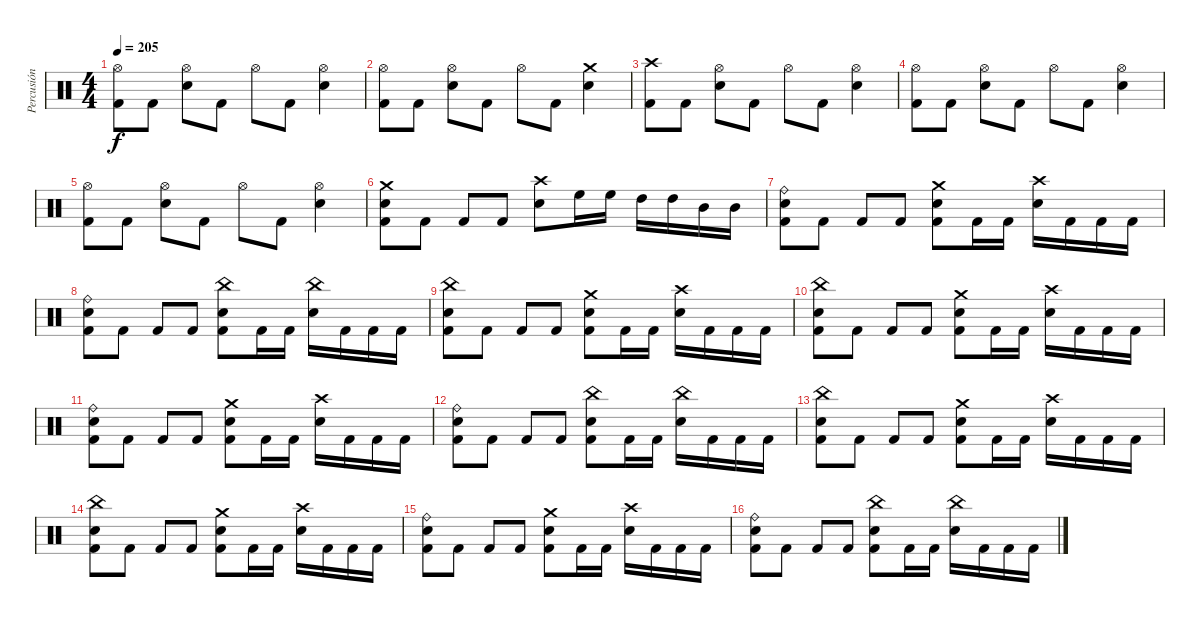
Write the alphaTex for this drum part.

\track ("Percusión" "Percusión") {instrument percussion}
\staff {score}
\articulation defaults
\ts (4 4)
\tempo 205
\clef neutral
\ks c
("Hi-Hat (open)" "Kick (hit) 2").8{dy f} "Kick (hit) 2".8 ("Hi-Hat (open)" "Snare (hit) 2").8 "Kick (hit) 2".8 "Hi-Hat (open)".8 "Kick (hit) 2".8 ("Snare (hit) 2" "Hi-Hat (open)").4 |
("Hi-Hat (open)" "Kick (hit) 2").8 "Kick (hit) 2".8 ("Hi-Hat (open)" "Snare (hit) 2").8 "Kick (hit) 2".8 "Hi-Hat (open)".8 "Kick (hit) 2".8 ("Snare (hit) 2" "Crash medium (hit)").4 |
("Crash high (hit)" "Kick (hit) 2").8 "Kick (hit) 2".8 ("Hi-Hat (open)" "Snare (hit) 2").8 "Kick (hit) 2".8 "Hi-Hat (open)".8 "Kick (hit) 2".8 ("Snare (hit) 2" "Hi-Hat (open)").4 |
("Hi-Hat (open)" "Kick (hit) 2").8 "Kick (hit) 2".8 ("Hi-Hat (open)" "Snare (hit) 2").8 "Kick (hit) 2".8 "Hi-Hat (open)".8 "Kick (hit) 2".8 ("Snare (hit) 2" "Hi-Hat (open)").4 |
("Hi-Hat (open)" "Kick (hit) 2").8 "Kick (hit) 2".8 ("Hi-Hat (open)" "Snare (hit) 2").8 "Kick (hit) 2".8 "Hi-Hat (open)".8 "Kick (hit) 2".8 ("Snare (hit) 2" "Hi-Hat (open)").4 |
("Crash medium (hit)" "Snare (hit) 2" "Kick (hit) 2").8 "Kick (hit) 2".8 "Kick (hit) 2".8 "Kick (hit) 2".8 ("Crash high (hit)" "Snare (hit) 2").8 "High Floor Tom (hit)".16 "High Floor Tom (hit)".16 "High Tom (hit)".16 "High Tom (hit)".16 "Mid Tom (hit)".16 "Mid Tom (hit)".16 |
("Snare (hit) 2" "Ride (bell)" "Kick (hit) 2").8 "Kick (hit) 2".8 "Kick (hit) 2".8 "Kick (hit) 2".8 ("Snare (hit) 2" "Crash medium (hit)" "Kick (hit) 2").8 "Kick (hit) 2".16 "Kick (hit) 2".16 ("Crash high (hit)" "Snare (hit) 2").16 "Kick (hit) 2".16 "Kick (hit) 2".16 "Kick (hit) 2".16 |
("Snare (hit) 2" "Ride (bell)" "Kick (hit) 2").8 "Kick (hit) 2".8 "Kick (hit) 2".8 "Kick (hit) 2".8 ("Snare (hit) 2" "China (hit)" "Kick (hit) 2").8 "Kick (hit) 2".16 "Kick (hit) 2".16 ("China (hit)" "Snare (hit) 2").16 "Kick (hit) 2".16 "Kick (hit) 2".16 "Kick (hit) 2".16 |
("Snare (hit) 2" "China (hit)" "Kick (hit) 2").8 "Kick (hit) 2".8 "Kick (hit) 2".8 "Kick (hit) 2".8 ("Snare (hit) 2" "Crash medium (hit)" "Kick (hit) 2").8 "Kick (hit) 2".16 "Kick (hit) 2".16 ("Crash high (hit)" "Snare (hit) 2").16 "Kick (hit) 2".16 "Kick (hit) 2".16 "Kick (hit) 2".16 |
("Snare (hit) 2" "China (hit)" "Kick (hit) 2").8 "Kick (hit) 2".8 "Kick (hit) 2".8 "Kick (hit) 2".8 ("Snare (hit) 2" "Crash medium (hit)" "Kick (hit) 2").8 "Kick (hit) 2".16 "Kick (hit) 2".16 ("Crash high (hit)" "Snare (hit) 2").16 "Kick (hit) 2".16 "Kick (hit) 2".16 "Kick (hit) 2".16 |
("Snare (hit) 2" "Ride (bell)" "Kick (hit) 2").8 "Kick (hit) 2".8 "Kick (hit) 2".8 "Kick (hit) 2".8 ("Snare (hit) 2" "Crash medium (hit)" "Kick (hit) 2").8 "Kick (hit) 2".16 "Kick (hit) 2".16 ("Crash high (hit)" "Snare (hit) 2").16 "Kick (hit) 2".16 "Kick (hit) 2".16 "Kick (hit) 2".16 |
("Snare (hit) 2" "Ride (bell)" "Kick (hit) 2").8 "Kick (hit) 2".8 "Kick (hit) 2".8 "Kick (hit) 2".8 ("Snare (hit) 2" "China (hit)" "Kick (hit) 2").8 "Kick (hit) 2".16 "Kick (hit) 2".16 ("China (hit)" "Snare (hit) 2").16 "Kick (hit) 2".16 "Kick (hit) 2".16 "Kick (hit) 2".16 |
("Snare (hit) 2" "China (hit)" "Kick (hit) 2").8 "Kick (hit) 2".8 "Kick (hit) 2".8 "Kick (hit) 2".8 ("Snare (hit) 2" "Crash medium (hit)" "Kick (hit) 2").8 "Kick (hit) 2".16 "Kick (hit) 2".16 ("Crash high (hit)" "Snare (hit) 2").16 "Kick (hit) 2".16 "Kick (hit) 2".16 "Kick (hit) 2".16 |
("Snare (hit) 2" "China (hit)" "Kick (hit) 2").8 "Kick (hit) 2".8 "Kick (hit) 2".8 "Kick (hit) 2".8 ("Snare (hit) 2" "Crash medium (hit)" "Kick (hit) 2").8 "Kick (hit) 2".16 "Kick (hit) 2".16 ("Crash high (hit)" "Snare (hit) 2").16 "Kick (hit) 2".16 "Kick (hit) 2".16 "Kick (hit) 2".16 |
("Snare (hit) 2" "Ride (bell)" "Kick (hit) 2").8 "Kick (hit) 2".8 "Kick (hit) 2".8 "Kick (hit) 2".8 ("Snare (hit) 2" "Crash medium (hit)" "Kick (hit) 2").8 "Kick (hit) 2".16 "Kick (hit) 2".16 ("Crash high (hit)" "Snare (hit) 2").16 "Kick (hit) 2".16 "Kick (hit) 2".16 "Kick (hit) 2".16 |
("Snare (hit) 2" "Ride (bell)" "Kick (hit) 2").8 "Kick (hit) 2".8 "Kick (hit) 2".8 "Kick (hit) 2".8 ("Snare (hit) 2" "China (hit)" "Kick (hit) 2").8 "Kick (hit) 2".16 "Kick (hit) 2".16 ("China (hit)" "Snare (hit) 2").16 "Kick (hit) 2".16 "Kick (hit) 2".16 "Kick (hit) 2".16
